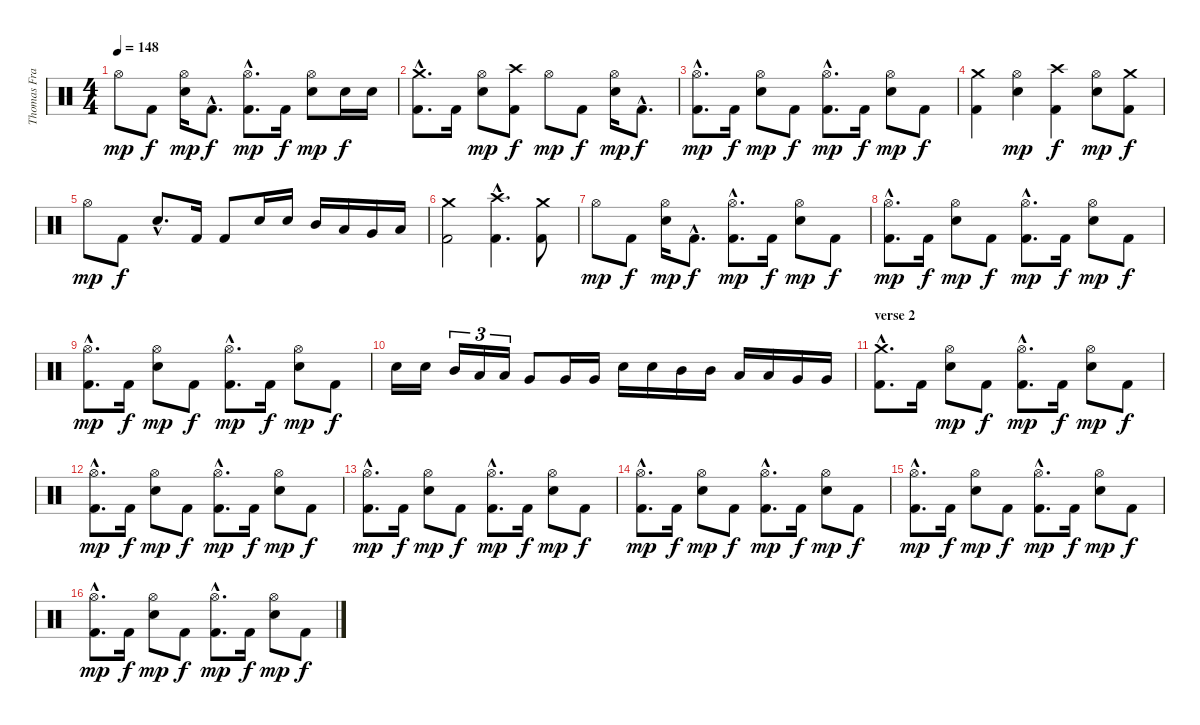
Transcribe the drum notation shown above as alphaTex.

\track ("Thomas Franke" "Thomas Fra") {instrument percussion}
\staff {score}
\articulation defaults
\ts (4 4)
\tempo 148
\clef neutral
\ks c "Hi-Hat (open)".8{dy mp} "Kick (hit) 2".8{dy f}
("Hi-Hat (open)" "Snare (hit) 2").16{dy mp} "Kick (hit) 2"{hac}.8{d dy f} ("Kick (hit) 2"{hac} "Hi-Hat (open)"{hac}).8{d dy mp} "Kick (hit) 2".16{dy f} ("Hi-Hat (open)" "Snare (hit) 2").8{dy mp} "Snare (hit) 2".16{dy f} "Snare (hit) 2".16 |
("Kick (hit) 2"{hac} "Crash medium (hit)"{hac}).8{d} "Kick (hit) 2".16 ("Hi-Hat (open)" "Snare (hit) 2").8{dy mp} ("Kick (hit) 2" "Crash high (hit)").8{dy f} "Hi-Hat (open)".8{dy mp} "Kick (hit) 2".8{dy f} ("Hi-Hat (open)" "Snare (hit) 2").16{dy mp} "Kick (hit) 2"{hac}.8{d dy f} |
("Kick (hit) 2"{hac} "Hi-Hat (open)"{hac}).8{d dy mp} "Kick (hit) 2".16{dy f} ("Hi-Hat (open)" "Snare (hit) 2").8{dy mp} "Kick (hit) 2".8{dy f} ("Kick (hit) 2"{hac} "Hi-Hat (open)"{hac}).8{d dy mp} "Kick (hit) 2".16{dy f} ("Hi-Hat (open)" "Snare (hit) 2").8{dy mp} "Kick (hit) 2".8{dy f} |
("Kick (hit) 2" "Crash medium (hit)").4 ("Hi-Hat (open)" "Snare (hit) 2").4{dy mp} ("Kick (hit) 2" "Crash high (hit)").4{dy f} ("Hi-Hat (open)" "Snare (hit) 2").8{dy mp} ("Kick (hit) 2" "Crash medium (hit)").8{dy f} |
"Hi-Hat (open)".8{dy mp} "Kick (hit) 2".8{dy f} "Snare (hit) 2"{hac}.8{d} "Kick (hit) 2".16 "Kick (hit) 2".8 "Snare (hit) 2".16 "Snare (hit) 2".16 "Mid Tom (hit)".16 "Low Tom (hit)".16 "Very Low Tom (hit)".16 "Low Floor Tom (hit)".16 |
("Kick (hit) 2" "Crash medium (hit)").2 ("Kick (hit) 2"{hac} "Crash high (hit)"{hac}).4{d} ("Kick (hit) 2" "Crash medium (hit)").8 |
"Hi-Hat (open)".8{dy mp} "Kick (hit) 2".8{dy f} ("Hi-Hat (open)" "Snare (hit) 2").16{dy mp} "Kick (hit) 2"{hac}.8{d dy f} ("Kick (hit) 2"{hac} "Hi-Hat (open)"{hac}).8{d dy mp} "Kick (hit) 2".16{dy f} ("Hi-Hat (open)" "Snare (hit) 2").8{dy mp} "Kick (hit) 2".8{dy f} |
("Kick (hit) 2"{hac} "Hi-Hat (open)"{hac}).8{d dy mp} "Kick (hit) 2".16{dy f} ("Hi-Hat (open)" "Snare (hit) 2").8{dy mp} "Kick (hit) 2".8{dy f} ("Kick (hit) 2"{hac} "Hi-Hat (open)"{hac}).8{d dy mp} "Kick (hit) 2".16{dy f} ("Hi-Hat (open)" "Snare (hit) 2").8{dy mp} "Kick (hit) 2".8{dy f} |
("Kick (hit) 2"{hac} "Hi-Hat (open)"{hac}).8{d dy mp} "Kick (hit) 2".16{dy f} ("Hi-Hat (open)" "Snare (hit) 2").8{dy mp} "Kick (hit) 2".8{dy f} ("Kick (hit) 2"{hac} "Hi-Hat (open)"{hac}).8{d dy mp} "Kick (hit) 2".16{dy f} ("Hi-Hat (open)" "Snare (hit) 2").8{dy mp} "Kick (hit) 2".8{dy f} |
"Snare (hit) 2".16 "Snare (hit) 2".16 "Mid Tom (hit)".16{tu (3 2)} "Low Tom (hit)".16{tu (3 2)} "Low Tom (hit)".16{tu (3 2)} "Very Low Tom (hit)".8 "Very Low Tom (hit)".16 "Very Low Tom (hit)".16 "Snare (hit) 2".16 "Snare (hit) 2".16 "Mid Tom (hit)".16 "Mid Tom (hit)".16 "Low Tom (hit)".16 "Low Tom (hit)".16 "Very Low Tom (hit)".16 "Very Low Tom (hit)".16 |
\section ("" "verse 2")
("Kick (hit) 2"{hac} "Crash medium (hit)"{hac}).8{d} "Kick (hit) 2".16 ("Hi-Hat (open)" "Snare (hit) 2").8{dy mp} "Kick (hit) 2".8{dy f} ("Kick (hit) 2"{hac} "Hi-Hat (open)"{hac}).8{d dy mp} "Kick (hit) 2".16{dy f} ("Hi-Hat (open)" "Snare (hit) 2").8{dy mp} "Kick (hit) 2".8{dy f} |
("Kick (hit) 2"{hac} "Hi-Hat (open)"{hac}).8{d dy mp} "Kick (hit) 2".16{dy f} ("Hi-Hat (open)" "Snare (hit) 2").8{dy mp} "Kick (hit) 2".8{dy f} ("Kick (hit) 2"{hac} "Hi-Hat (open)"{hac}).8{d dy mp} "Kick (hit) 2".16{dy f} ("Hi-Hat (open)" "Snare (hit) 2").8{dy mp} "Kick (hit) 2".8{dy f} |
("Kick (hit) 2"{hac} "Hi-Hat (open)"{hac}).8{d dy mp} "Kick (hit) 2".16{dy f} ("Hi-Hat (open)" "Snare (hit) 2").8{dy mp} "Kick (hit) 2".8{dy f} ("Kick (hit) 2"{hac} "Hi-Hat (open)"{hac}).8{d dy mp} "Kick (hit) 2".16{dy f} ("Hi-Hat (open)" "Snare (hit) 2").8{dy mp} "Kick (hit) 2".8{dy f} |
("Kick (hit) 2"{hac} "Hi-Hat (open)"{hac}).8{d dy mp} "Kick (hit) 2".16{dy f} ("Hi-Hat (open)" "Snare (hit) 2").8{dy mp} "Kick (hit) 2".8{dy f} ("Kick (hit) 2"{hac} "Hi-Hat (open)"{hac}).8{d dy mp} "Kick (hit) 2".16{dy f} ("Hi-Hat (open)" "Snare (hit) 2").8{dy mp} "Kick (hit) 2".8{dy f} |
("Kick (hit) 2"{hac} "Hi-Hat (open)"{hac}).8{d dy mp} "Kick (hit) 2".16{dy f} ("Hi-Hat (open)" "Snare (hit) 2").8{dy mp} "Kick (hit) 2".8{dy f} ("Kick (hit) 2"{hac} "Hi-Hat (open)"{hac}).8{d dy mp} "Kick (hit) 2".16{dy f} ("Hi-Hat (open)" "Snare (hit) 2").8{dy mp} "Kick (hit) 2".8{dy f} |
("Kick (hit) 2"{hac} "Hi-Hat (open)"{hac}).8{d dy mp} "Kick (hit) 2".16{dy f} ("Hi-Hat (open)" "Snare (hit) 2").8{dy mp} "Kick (hit) 2".8{dy f} ("Kick (hit) 2"{hac} "Hi-Hat (open)"{hac}).8{d dy mp} "Kick (hit) 2".16{dy f} ("Hi-Hat (open)" "Snare (hit) 2").8{dy mp} "Kick (hit) 2".8{dy f}
